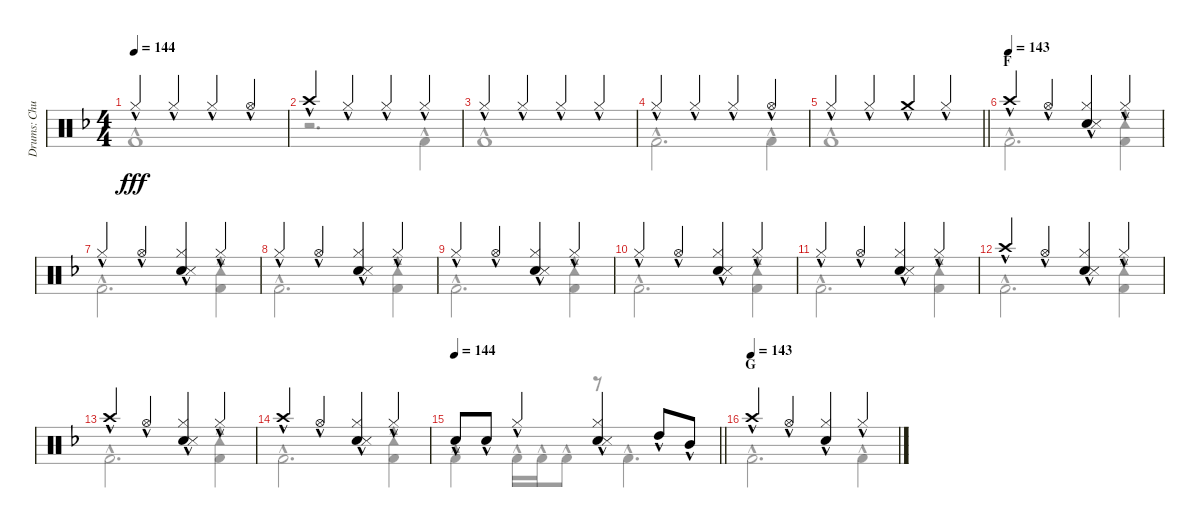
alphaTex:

\track ("Drums: Chuck" "Drums: Chu") {instrument percussion}
\staff {score}
\articulation defaults
\voice
\ts (4 4)
\tempo 144
\clef neutral
\ks f "Hi-Hat (closed)"{hac}.4{dy fff} "Hi-Hat (closed)"{hac}.4 "Hi-Hat (closed)"{hac}.4 "Hi-Hat (open)"{hac}.4
|
"Crash high (hit)"{hac}.4 "Hi-Hat (closed)"{hac}.4 "Hi-Hat (closed)"{hac}.4 "Hi-Hat (closed)"{hac}.4 |
"Hi-Hat (closed)"{hac}.4 "Hi-Hat (closed)"{hac}.4 "Hi-Hat (closed)"{hac}.4 "Hi-Hat (closed)"{hac}.4 |
"Hi-Hat (closed)"{hac}.4 "Hi-Hat (closed)"{hac}.4 "Hi-Hat (closed)"{hac}.4 "Hi-Hat (open)"{hac}.4 |
\barLineRight lightlight "Hi-Hat (closed)"{hac}.4 "Hi-Hat (closed)"{hac}.4 "Crash medium (hit)"{hac}.4 "Hi-Hat (closed)"{hac}.4
|
\section ("" "F")
\tempo (143)
"Crash high (hit)"{hac}.4 "Hi-Hat (open)"{hac}.4 ("Hi-Hat (closed)"{hac} "Electric Snare (hit)"{hac} "Snare (side stick) 3"{hac}).4 "Hi-Hat (closed)"{hac}.4 |
"Hi-Hat (closed)"{hac}.4 "Hi-Hat (open)"{hac}.4 ("Hi-Hat (closed)"{hac} "Electric Snare (hit)"{hac} "Snare (side stick) 3"{hac}).4 "Hi-Hat (closed)"{hac}.4 |
"Hi-Hat (closed)"{hac}.4 "Hi-Hat (open)"{hac}.4 ("Hi-Hat (closed)"{hac} "Electric Snare (hit)"{hac} "Snare (side stick) 3"{hac}).4 "Hi-Hat (closed)"{hac}.4 |
"Hi-Hat (closed)"{hac}.4 "Hi-Hat (open)"{hac}.4 ("Hi-Hat (closed)"{hac} "Electric Snare (hit)"{hac} "Snare (side stick) 3"{hac}).4 "Hi-Hat (closed)"{hac}.4 |
"Hi-Hat (closed)"{hac}.4 "Hi-Hat (open)"{hac}.4 ("Hi-Hat (closed)"{hac} "Electric Snare (hit)"{hac} "Snare (side stick) 3"{hac}).4 "Hi-Hat (closed)"{hac}.4 |
"Hi-Hat (closed)"{hac}.4 "Hi-Hat (open)"{hac}.4 ("Hi-Hat (closed)"{hac} "Electric Snare (hit)"{hac} "Snare (side stick) 3"{hac}).4 "Hi-Hat (closed)"{hac}.4 |
"Crash high (hit)"{hac}.4 "Hi-Hat (open)"{hac}.4 ("Hi-Hat (closed)"{hac} "Electric Snare (hit)"{hac} "Snare (side stick) 3"{hac}).4 "Hi-Hat (closed)"{hac}.4 |
"Crash high (hit)"{hac}.4 "Hi-Hat (open)"{hac}.4 ("Hi-Hat (closed)"{hac} "Electric Snare (hit)"{hac} "Snare (side stick) 3"{hac}).4 "Hi-Hat (closed)"{hac}.4 |
"Crash high (hit)"{hac}.4 "Hi-Hat (open)"{hac}.4 ("Hi-Hat (closed)"{hac} "Electric Snare (hit)"{hac} "Snare (side stick) 3"{hac}).4 "Hi-Hat (closed)"{hac}.4 |
\tempo 144
\barLineRight lightlight "Electric Snare (hit)"{hac}.8 "Electric Snare (hit)"{hac}.8 "Hi-Hat (closed)"{hac}.4
("Hi-Hat (closed)"{hac} "Electric Snare (hit)"{hac} "Snare (side stick) 3"{hac}).4 "High Tom (hit)"{hac}.8 "Mid Tom (hit)"{hac}.8 |
\section ("" "G")
\tempo (143)
"Crash high (hit)"{hac}.4 "Hi-Hat (open)"{hac}.4 ("Hi-Hat (closed)"{hac} "Snare (hit) 2"{hac}).4 "Hi-Hat (closed)"{hac}.4
\voice
\clef neutral
\ottava regular
\simile none
\ks f "Kick (hit) 2"{hac}.1{dy fff}
|
r.2{d} "Kick (hit) 2"{hac}.4 |
"Kick (hit) 2"{hac}.1 |
"Kick (hit) 2"{hac}.2{d} "Kick (hit) 2"{hac}.4 |
\barLineRight lightlight "Kick (hit) 2"{hac}.1
|
"Kick (hit) 2"{hac}.2{d} ("Tambourine (hit)"{hac} "Kick (hit) 2"{hac}).4 |
"Kick (hit) 2"{hac}.2{d} ("Tambourine (hit)"{hac} "Kick (hit) 2"{hac}).4 |
"Kick (hit) 2"{hac}.2{d} ("Tambourine (hit)"{hac} "Kick (hit) 2"{hac}).4 |
"Kick (hit) 2"{hac}.2{d} ("Tambourine (hit)"{hac} "Kick (hit) 2"{hac}).4 |
"Kick (hit) 2"{hac}.2{d} ("Tambourine (hit)"{hac} "Kick (hit) 2"{hac}).4 |
"Kick (hit) 2"{hac}.2{d} ("Tambourine (hit)"{hac} "Kick (hit) 2"{hac}).4 |
"Kick (hit) 2"{hac}.2{d} ("Tambourine (hit)"{hac} "Kick (hit) 2"{hac}).4 |
"Kick (hit) 2"{hac}.2{d} ("Tambourine (hit)"{hac} "Kick (hit) 2"{hac}).4 |
"Kick (hit) 2"{hac}.2{d} ("Tambourine (hit)"{hac} "Kick (hit) 2"{hac}).4 |
\barLineRight lightlight "Kick (hit) 2"{hac}.4 "Kick (hit) 2"{hac}.16 "Kick (hit) 2"{hac}.16 "Kick (hit) 2"{hac}.8
r.8 "Kick (hit) 2"{hac}.4{d} |
"Kick (hit) 2"{hac}.2{d} "Kick (hit) 2"{hac}.4
